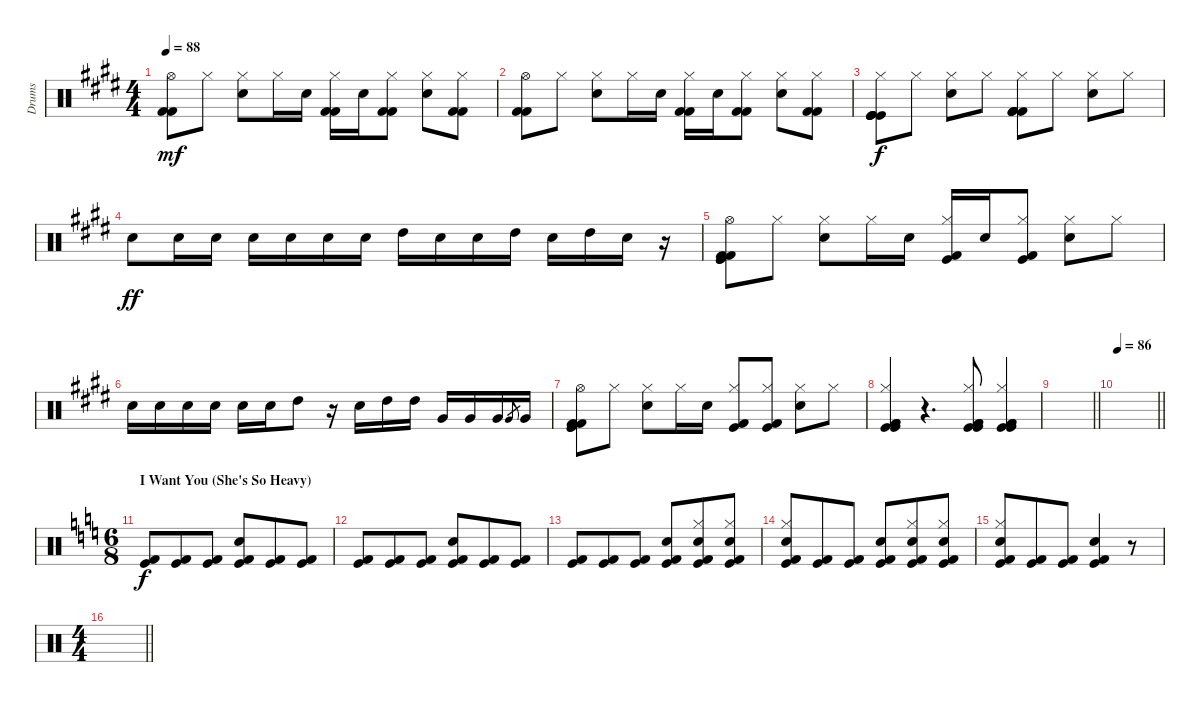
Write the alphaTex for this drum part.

\track ("Drums" "Drums") {instrument percussion}
\staff {score}
\articulation defaults
\ts (4 4)
\tempo 88
\clef neutral
\ks e
("Hi-Hat (open)" "Kick (hit) 2" "Kick (hit) 2").8{dy mf} "Hi-Hat (closed)".8 ("Hi-Hat (closed)" "Snare (hit) 2").8 "Hi-Hat (closed)".16 "Snare (hit) 2".16 ("Hi-Hat (closed)" "Kick (hit) 2" "Kick (hit) 2").16 "Snare (hit) 2".16 ("Hi-Hat (closed)" "Kick (hit) 2" "Kick (hit) 2").8 ("Hi-Hat (closed)" "Snare (hit) 2").8 ("Hi-Hat (closed)" "Kick (hit) 2" "Kick (hit) 2").8 |
("Hi-Hat (open)" "Kick (hit) 2" "Kick (hit) 2").8 "Hi-Hat (closed)".8 ("Hi-Hat (closed)" "Snare (hit) 2").8 "Hi-Hat (closed)".16 "Snare (hit) 2".16 ("Hi-Hat (closed)" "Kick (hit) 2" "Kick (hit) 2").16 "Snare (hit) 2".16 ("Hi-Hat (closed)" "Kick (hit) 2" "Kick (hit) 2").8 ("Hi-Hat (closed)" "Snare (hit) 2").8 ("Hi-Hat (closed)" "Kick (hit) 2" "Kick (hit) 2").8 |
("Hi-Hat (closed)" "Kick (hit)" "Kick (hit)" "Kick (hit)" "Kick (hit)").8{dy f} "Hi-Hat (closed)".8 ("Hi-Hat (closed)" "Snare (hit) 2").8 "Hi-Hat (closed)".8 ("Hi-Hat (closed)" "Kick (hit) 2" "Kick (hit) 2" "Kick (hit) 2" "Kick (hit) 2").8 "Hi-Hat (closed)".8 ("Hi-Hat (closed)" "Snare (hit) 2").8 "Hi-Hat (closed)".8 |
"Snare (hit) 2".8{dy ff} "Snare (hit) 2".16 "Snare (hit) 2".16 "Snare (hit) 2".16 "Snare (hit) 2".16 "Snare (hit) 2".16 "Snare (hit) 2".16 "High Tom (hit)".16 "Snare (hit) 2".16 "Snare (hit) 2".16 "High Tom (hit)".16 "Snare (hit) 2".16 "High Tom (hit)".16 "Snare (hit) 2".16 r.16 |
("Hi-Hat (open)" "Kick (hit) 2" "Kick (hit) 2" "Kick (hit)" "Kick (hit)").8 "Hi-Hat (closed)".8 ("Hi-Hat (closed)" "Snare (hit) 2").8 "Hi-Hat (closed)".16 "Snare (hit) 2".16 ("Hi-Hat (closed)" "Kick (hit) 2" "Kick (hit)").16 "Snare (hit) 2".16 ("Hi-Hat (closed)" "Kick (hit) 2" "Kick (hit)").8 ("Hi-Hat (closed)" "Snare (hit) 2").8 "Hi-Hat (closed)".8 |
"Snare (hit) 2".16 "Snare (hit) 2".16 "Snare (hit) 2".16 "Snare (hit) 2".16 "Snare (hit) 2".16 "Snare (hit) 2".16 "High Tom (hit)".8 r.16 "Snare (hit) 2".16 "High Tom (hit)".16 "High Tom (hit)".16 "Very Low Tom (hit)".16 "Very Low Tom (hit)".16 "Very Low Tom (hit)".16 "Very Low Tom (hit)".8{gr} "Very Low Tom (hit)".16 |
("Hi-Hat (open)" "Kick (hit) 2" "Kick (hit) 2" "Kick (hit)" "Kick (hit)").8 "Hi-Hat (closed)".8 ("Hi-Hat (closed)" "Snare (hit) 2").8 "Hi-Hat (closed)".16 "Snare (hit) 2".16 ("Hi-Hat (closed)" "Kick (hit) 2" "Kick (hit)").8 ("Hi-Hat (closed)" "Kick (hit) 2" "Kick (hit)").8 ("Hi-Hat (closed)" "Snare (hit) 2").8 "Hi-Hat (closed)".8 |
("Hi-Hat (closed)" "Kick (hit) 2" "Kick (hit) 2" "Kick (hit)" "Kick (hit)").4 r.4{d} ("Hi-Hat (closed)" "Kick (hit) 2" "Kick (hit) 2" "Kick (hit)" "Kick (hit)").8 ("Hi-Hat (closed)" "Kick (hit)" "Kick (hit) 2" "Kick (hit)" "Kick (hit) 2").4 |
\barLineRight lightlight
|
\tempo 86
\barLineRight lightlight
|
\ts (6 8)
\section ("" "I Want You (She's So Heavy)")
\ks c
("Kick (hit) 2" "Kick (hit)").8{dy f} ("Kick (hit) 2" "Kick (hit)").8 ("Kick (hit) 2" "Kick (hit)").8 ("Snare (hit) 2" "Kick (hit) 2" "Kick (hit)").8 ("Kick (hit) 2" "Kick (hit)").8 ("Kick (hit) 2" "Kick (hit)").8 |
("Kick (hit) 2" "Kick (hit)").8 ("Kick (hit) 2" "Kick (hit)").8 ("Kick (hit) 2" "Kick (hit)").8 ("Snare (hit) 2" "Kick (hit) 2" "Kick (hit)").8 ("Kick (hit) 2" "Kick (hit)").8 ("Kick (hit) 2" "Kick (hit)").8 |
("Kick (hit) 2" "Kick (hit)").8 ("Kick (hit) 2" "Kick (hit)").8 ("Kick (hit) 2" "Kick (hit)").8 ("Snare (hit) 2" "Kick (hit) 2" "Kick (hit)").8 ("Hi-Hat (closed)" "Snare (hit) 2" "Kick (hit) 2" "Kick (hit)").8 ("Hi-Hat (closed)" "Snare (hit) 2" "Kick (hit) 2" "Kick (hit)").8 |
("Hi-Hat (closed)" "Snare (hit) 2" "Kick (hit) 2" "Kick (hit)").8 ("Kick (hit) 2" "Kick (hit)").8 ("Kick (hit) 2" "Kick (hit)").8 ("Snare (hit) 2" "Kick (hit) 2" "Kick (hit)").8 ("Hi-Hat (closed)" "Snare (hit) 2" "Kick (hit) 2" "Kick (hit)").8 ("Hi-Hat (closed)" "Snare (hit) 2" "Kick (hit) 2" "Kick (hit)").8 |
("Hi-Hat (closed)" "Snare (hit) 2" "Kick (hit) 2" "Kick (hit)").8 ("Kick (hit) 2" "Kick (hit)").8 ("Kick (hit) 2" "Kick (hit)").8 ("Snare (hit) 2" "Kick (hit) 2" "Kick (hit)").4 r.8 |
\ts (4 4)
\barLineRight lightlight
